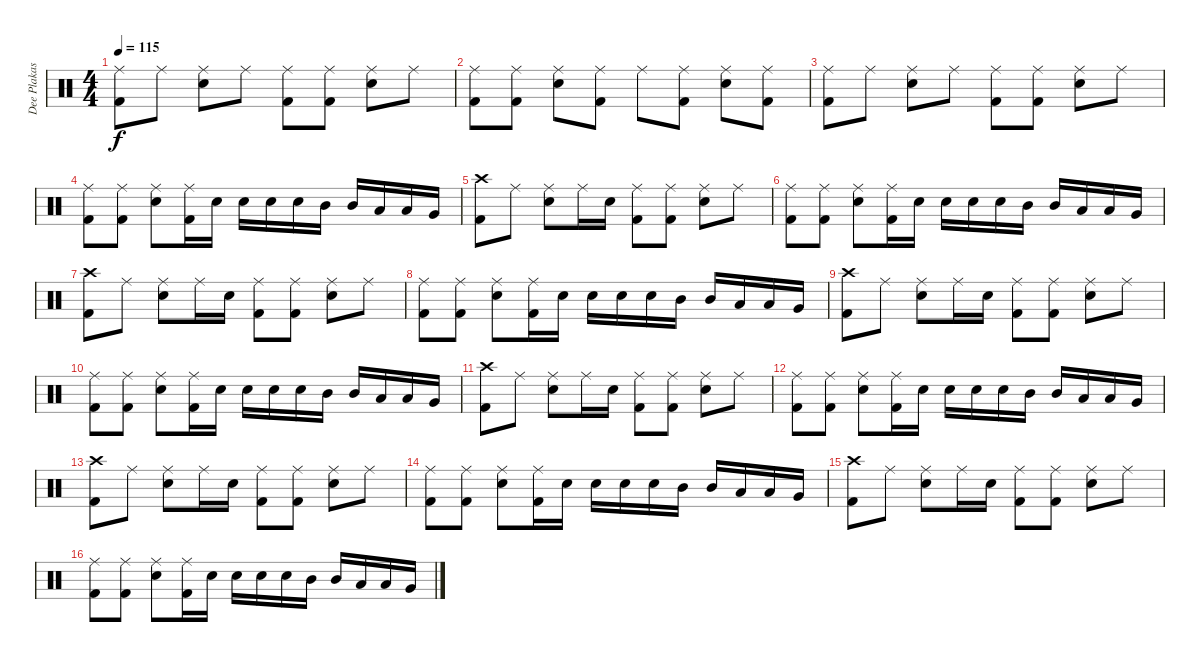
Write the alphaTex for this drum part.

\track ("Dee Plakas" "Dee Plakas") {instrument percussion}
\staff {score}
\articulation defaults
\ts (4 4)
\tempo 115
\clef neutral
\ks c
("Ride (middle)" "Kick (hit) 2").8{dy f} "Ride (middle)".8 ("Ride (middle)" "Snare (hit) 2").8 "Ride (middle)".8 ("Ride (middle)" "Kick (hit) 2").8 ("Ride (middle)" "Kick (hit) 2").8 ("Ride (middle)" "Snare (hit) 2").8 "Ride (middle)".8 |
("Ride (middle)" "Kick (hit) 2").8 ("Ride (middle)" "Kick (hit) 2").8 ("Ride (middle)" "Snare (hit) 2").8 ("Ride (middle)" "Kick (hit) 2").8 "Ride (middle)".8 ("Ride (middle)" "Kick (hit) 2").8 ("Ride (middle)" "Snare (hit) 2").8 ("Ride (middle)" "Kick (hit) 2").8 |
("Ride (middle)" "Kick (hit) 2").8 "Ride (middle)".8 ("Ride (middle)" "Snare (hit) 2").8 "Ride (middle)".8 ("Ride (middle)" "Kick (hit) 2").8 ("Ride (middle)" "Kick (hit) 2").8 ("Ride (middle)" "Snare (hit) 2").8 "Ride (middle)".8 |
("Ride (middle)" "Kick (hit) 2").8 ("Ride (middle)" "Kick (hit) 2").8 ("Ride (middle)" "Snare (hit) 2").8 ("Ride (middle)" "Kick (hit) 2").16 "Snare (hit) 2".16 "Snare (hit) 2".16 "Snare (hit) 2".16 "Snare (hit) 2".16 "Mid Tom (hit)".16 "Mid Tom (hit)".16 "Low Tom (hit)".16 "Low Tom (hit)".16 "Very Low Tom (hit)".16 |
("Crash high (hit)" "Kick (hit) 2").8 "Ride (middle)".8 ("Ride (middle)" "Snare (hit) 2").8 "Ride (middle)".16 "Snare (hit) 2".16 ("Ride (middle)" "Kick (hit) 2").8 ("Ride (middle)" "Kick (hit) 2").8 ("Ride (middle)" "Snare (hit) 2").8 "Ride (middle)".8 |
("Ride (middle)" "Kick (hit) 2").8 ("Ride (middle)" "Kick (hit) 2").8 ("Ride (middle)" "Snare (hit) 2").8 ("Ride (middle)" "Kick (hit) 2").16 "Snare (hit) 2".16 "Snare (hit) 2".16 "Snare (hit) 2".16 "Snare (hit) 2".16 "Mid Tom (hit)".16 "Mid Tom (hit)".16 "Low Tom (hit)".16 "Low Tom (hit)".16 "Very Low Tom (hit)".16 |
("Crash high (hit)" "Kick (hit) 2").8 "Ride (middle)".8 ("Ride (middle)" "Snare (hit) 2").8 "Ride (middle)".16 "Snare (hit) 2".16 ("Ride (middle)" "Kick (hit) 2").8 ("Ride (middle)" "Kick (hit) 2").8 ("Ride (middle)" "Snare (hit) 2").8 "Ride (middle)".8 |
("Ride (middle)" "Kick (hit) 2").8 ("Ride (middle)" "Kick (hit) 2").8 ("Ride (middle)" "Snare (hit) 2").8 ("Ride (middle)" "Kick (hit) 2").16 "Snare (hit) 2".16 "Snare (hit) 2".16 "Snare (hit) 2".16 "Snare (hit) 2".16 "Mid Tom (hit)".16 "Mid Tom (hit)".16 "Low Tom (hit)".16 "Low Tom (hit)".16 "Very Low Tom (hit)".16 |
("Crash high (hit)" "Kick (hit) 2").8 "Ride (middle)".8 ("Ride (middle)" "Snare (hit) 2").8 "Ride (middle)".16 "Snare (hit) 2".16 ("Ride (middle)" "Kick (hit) 2").8 ("Ride (middle)" "Kick (hit) 2").8 ("Ride (middle)" "Snare (hit) 2").8 "Ride (middle)".8 |
("Ride (middle)" "Kick (hit) 2").8 ("Ride (middle)" "Kick (hit) 2").8 ("Ride (middle)" "Snare (hit) 2").8 ("Ride (middle)" "Kick (hit) 2").16 "Snare (hit) 2".16 "Snare (hit) 2".16 "Snare (hit) 2".16 "Snare (hit) 2".16 "Mid Tom (hit)".16 "Mid Tom (hit)".16 "Low Tom (hit)".16 "Low Tom (hit)".16 "Very Low Tom (hit)".16 |
("Crash high (hit)" "Kick (hit) 2").8 "Ride (middle)".8 ("Ride (middle)" "Snare (hit) 2").8 "Ride (middle)".16 "Snare (hit) 2".16 ("Ride (middle)" "Kick (hit) 2").8 ("Ride (middle)" "Kick (hit) 2").8 ("Ride (middle)" "Snare (hit) 2").8 "Ride (middle)".8 |
("Ride (middle)" "Kick (hit) 2").8 ("Ride (middle)" "Kick (hit) 2").8 ("Ride (middle)" "Snare (hit) 2").8 ("Ride (middle)" "Kick (hit) 2").16 "Snare (hit) 2".16 "Snare (hit) 2".16 "Snare (hit) 2".16 "Snare (hit) 2".16 "Mid Tom (hit)".16 "Mid Tom (hit)".16 "Low Tom (hit)".16 "Low Tom (hit)".16 "Very Low Tom (hit)".16 |
("Crash high (hit)" "Kick (hit) 2").8 "Ride (middle)".8 ("Ride (middle)" "Snare (hit) 2").8 "Ride (middle)".16 "Snare (hit) 2".16 ("Ride (middle)" "Kick (hit) 2").8 ("Ride (middle)" "Kick (hit) 2").8 ("Ride (middle)" "Snare (hit) 2").8 "Ride (middle)".8 |
("Ride (middle)" "Kick (hit) 2").8 ("Ride (middle)" "Kick (hit) 2").8 ("Ride (middle)" "Snare (hit) 2").8 ("Ride (middle)" "Kick (hit) 2").16 "Snare (hit) 2".16 "Snare (hit) 2".16 "Snare (hit) 2".16 "Snare (hit) 2".16 "Mid Tom (hit)".16 "Mid Tom (hit)".16 "Low Tom (hit)".16 "Low Tom (hit)".16 "Very Low Tom (hit)".16 |
("Crash high (hit)" "Kick (hit) 2").8 "Ride (middle)".8 ("Ride (middle)" "Snare (hit) 2").8 "Ride (middle)".16 "Snare (hit) 2".16 ("Ride (middle)" "Kick (hit) 2").8 ("Ride (middle)" "Kick (hit) 2").8 ("Ride (middle)" "Snare (hit) 2").8 "Ride (middle)".8 |
("Ride (middle)" "Kick (hit) 2").8 ("Ride (middle)" "Kick (hit) 2").8 ("Ride (middle)" "Snare (hit) 2").8 ("Ride (middle)" "Kick (hit) 2").16 "Snare (hit) 2".16 "Snare (hit) 2".16 "Snare (hit) 2".16 "Snare (hit) 2".16 "Mid Tom (hit)".16 "Mid Tom (hit)".16 "Low Tom (hit)".16 "Low Tom (hit)".16 "Very Low Tom (hit)".16
